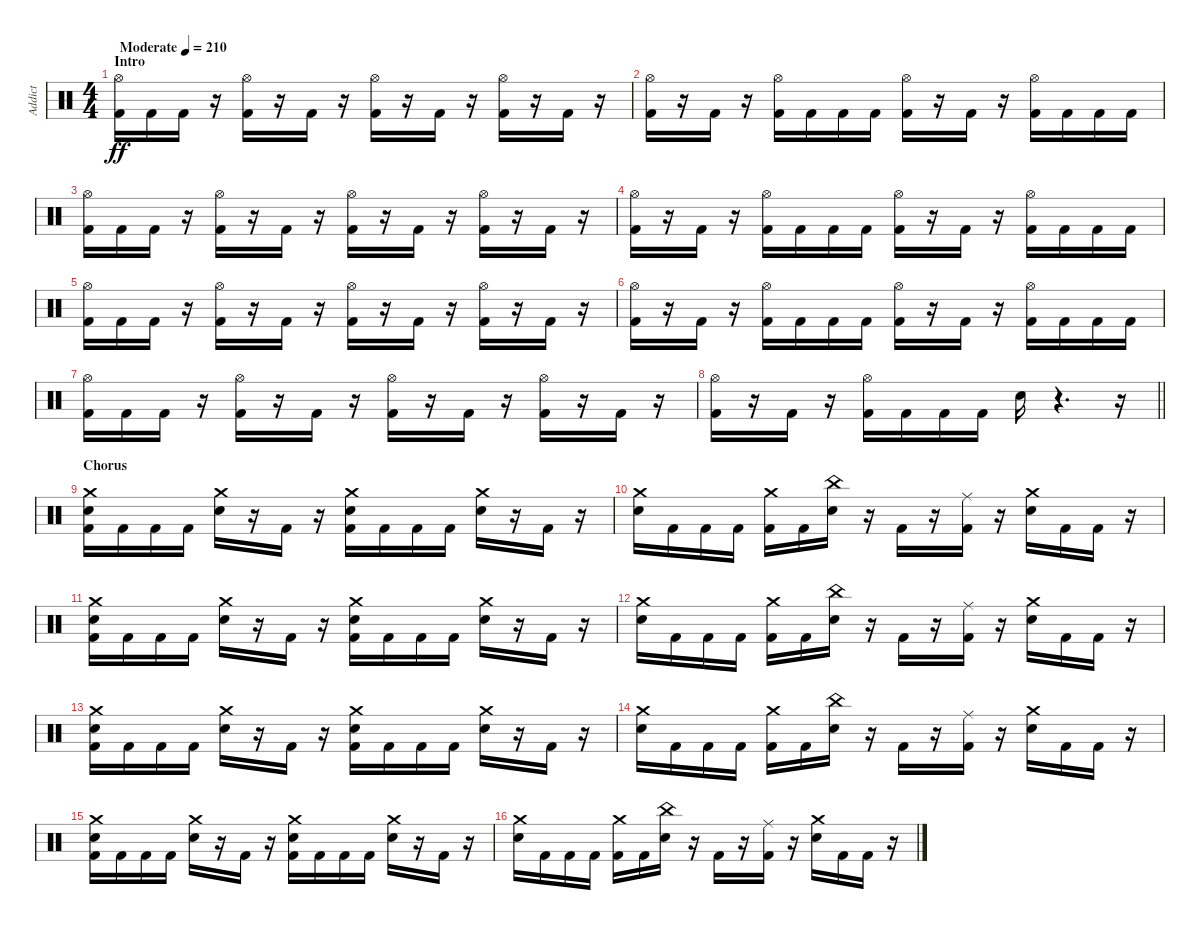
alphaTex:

\track ("Addict" "Addict") {instrument percussion}
\staff {score}
\articulation defaults
\ts (4 4)
\section ("" "Intro")
\tempo (210 "Moderate")
\clef neutral
\ks c
("Kick (hit) 2" "Hi-Hat (open)").16{dy ff} "Kick (hit) 2".16 "Kick (hit) 2".16 r.16 ("Kick (hit) 2" "Hi-Hat (open)").16 r.16 "Kick (hit) 2".16 r.16 ("Kick (hit) 2" "Hi-Hat (open)").16 r.16 "Kick (hit) 2".16 r.16 ("Kick (hit) 2" "Hi-Hat (open)").16 r.16 "Kick (hit) 2".16 r.16 |
("Kick (hit) 2" "Hi-Hat (open)").16 r.16 "Kick (hit) 2".16 r.16 ("Kick (hit) 2" "Hi-Hat (open)").16 "Kick (hit) 2".16 "Kick (hit) 2".16 "Kick (hit) 2".16 ("Kick (hit) 2" "Hi-Hat (open)").16 r.16 "Kick (hit) 2".16 r.16 ("Kick (hit) 2" "Hi-Hat (open)").16 "Kick (hit) 2".16 "Kick (hit) 2".16 "Kick (hit) 2".16 |
("Kick (hit) 2" "Hi-Hat (open)").16 "Kick (hit) 2".16 "Kick (hit) 2".16 r.16 ("Kick (hit) 2" "Hi-Hat (open)").16 r.16 "Kick (hit) 2".16 r.16 ("Kick (hit) 2" "Hi-Hat (open)").16 r.16 "Kick (hit) 2".16 r.16 ("Kick (hit) 2" "Hi-Hat (open)").16 r.16 "Kick (hit) 2".16 r.16 |
("Kick (hit) 2" "Hi-Hat (open)").16 r.16 "Kick (hit) 2".16 r.16 ("Kick (hit) 2" "Hi-Hat (open)").16 "Kick (hit) 2".16 "Kick (hit) 2".16 "Kick (hit) 2".16 ("Kick (hit) 2" "Hi-Hat (open)").16 r.16 "Kick (hit) 2".16 r.16 ("Kick (hit) 2" "Hi-Hat (open)").16 "Kick (hit) 2".16 "Kick (hit) 2".16 "Kick (hit) 2".16 |
("Kick (hit) 2" "Hi-Hat (open)").16 "Kick (hit) 2".16 "Kick (hit) 2".16 r.16 ("Kick (hit) 2" "Hi-Hat (open)").16 r.16 "Kick (hit) 2".16 r.16 ("Kick (hit) 2" "Hi-Hat (open)").16 r.16 "Kick (hit) 2".16 r.16 ("Kick (hit) 2" "Hi-Hat (open)").16 r.16 "Kick (hit) 2".16 r.16 |
("Kick (hit) 2" "Hi-Hat (open)").16 r.16 "Kick (hit) 2".16 r.16 ("Kick (hit) 2" "Hi-Hat (open)").16 "Kick (hit) 2".16 "Kick (hit) 2".16 "Kick (hit) 2".16 ("Kick (hit) 2" "Hi-Hat (open)").16 r.16 "Kick (hit) 2".16 r.16 ("Kick (hit) 2" "Hi-Hat (open)").16 "Kick (hit) 2".16 "Kick (hit) 2".16 "Kick (hit) 2".16 |
("Kick (hit) 2" "Hi-Hat (open)").16 "Kick (hit) 2".16 "Kick (hit) 2".16 r.16 ("Kick (hit) 2" "Hi-Hat (open)").16 r.16 "Kick (hit) 2".16 r.16 ("Kick (hit) 2" "Hi-Hat (open)").16 r.16 "Kick (hit) 2".16 r.16 ("Kick (hit) 2" "Hi-Hat (open)").16 r.16 "Kick (hit) 2".16 r.16 |
\barLineRight lightlight
("Kick (hit) 2" "Hi-Hat (open)").16 r.16 "Kick (hit) 2".16 r.16 ("Kick (hit) 2" "Hi-Hat (open)").16 "Kick (hit) 2".16 "Kick (hit) 2".16 "Kick (hit) 2".16 "Snare (hit) 2".16 r.4{d} r.16 |
\section ("" "Chorus")
("Kick (hit) 2" "Snare (hit) 2" "Crash medium (hit)").16 "Kick (hit) 2".16 "Kick (hit) 2".16 "Kick (hit) 2".16 ("Snare (hit) 2" "Crash medium (hit)").16 r.16 "Kick (hit) 2".16 r.16 ("Kick (hit) 2" "Snare (hit) 2" "Crash medium (hit)").16 "Kick (hit) 2".16 "Kick (hit) 2".16 "Kick (hit) 2".16 ("Snare (hit) 2" "Crash medium (hit)").16 r.16 "Kick (hit) 2".16 r.16 |
("Snare (hit) 2" "Crash medium (hit)").16 "Kick (hit) 2".16 "Kick (hit) 2".16 "Kick (hit) 2".16 ("Kick (hit) 2" "Crash medium (hit)").16 "Kick (hit) 2".16 ("Snare (hit) 2" "China (hit)").16 r.16 "Kick (hit) 2".16 r.16 ("Kick (hit) 2" "Ride (middle)").16 r.16 ("Snare (hit) 2" "Crash medium (hit)").16 "Kick (hit) 2".16 "Kick (hit) 2".16 r.16 |
("Kick (hit) 2" "Snare (hit) 2" "Crash medium (hit)").16 "Kick (hit) 2".16 "Kick (hit) 2".16 "Kick (hit) 2".16 ("Snare (hit) 2" "Crash medium (hit)").16 r.16 "Kick (hit) 2".16 r.16 ("Kick (hit) 2" "Snare (hit) 2" "Crash medium (hit)").16 "Kick (hit) 2".16 "Kick (hit) 2".16 "Kick (hit) 2".16 ("Snare (hit) 2" "Crash medium (hit)").16 r.16 "Kick (hit) 2".16 r.16 |
("Snare (hit) 2" "Crash medium (hit)").16 "Kick (hit) 2".16 "Kick (hit) 2".16 "Kick (hit) 2".16 ("Kick (hit) 2" "Crash medium (hit)").16 "Kick (hit) 2".16 ("Snare (hit) 2" "China (hit)").16 r.16 "Kick (hit) 2".16 r.16 ("Kick (hit) 2" "Ride (middle)").16 r.16 ("Snare (hit) 2" "Crash medium (hit)").16 "Kick (hit) 2".16 "Kick (hit) 2".16 r.16 |
("Kick (hit) 2" "Snare (hit) 2" "Crash medium (hit)").16 "Kick (hit) 2".16 "Kick (hit) 2".16 "Kick (hit) 2".16 ("Snare (hit) 2" "Crash medium (hit)").16 r.16 "Kick (hit) 2".16 r.16 ("Kick (hit) 2" "Snare (hit) 2" "Crash medium (hit)").16 "Kick (hit) 2".16 "Kick (hit) 2".16 "Kick (hit) 2".16 ("Snare (hit) 2" "Crash medium (hit)").16 r.16 "Kick (hit) 2".16 r.16 |
("Snare (hit) 2" "Crash medium (hit)").16 "Kick (hit) 2".16 "Kick (hit) 2".16 "Kick (hit) 2".16 ("Kick (hit) 2" "Crash medium (hit)").16 "Kick (hit) 2".16 ("Snare (hit) 2" "China (hit)").16 r.16 "Kick (hit) 2".16 r.16 ("Kick (hit) 2" "Ride (middle)").16 r.16 ("Snare (hit) 2" "Crash medium (hit)").16 "Kick (hit) 2".16 "Kick (hit) 2".16 r.16 |
("Kick (hit) 2" "Snare (hit) 2" "Crash medium (hit)").16 "Kick (hit) 2".16 "Kick (hit) 2".16 "Kick (hit) 2".16 ("Snare (hit) 2" "Crash medium (hit)").16 r.16 "Kick (hit) 2".16 r.16 ("Kick (hit) 2" "Snare (hit) 2" "Crash medium (hit)").16 "Kick (hit) 2".16 "Kick (hit) 2".16 "Kick (hit) 2".16 ("Snare (hit) 2" "Crash medium (hit)").16 r.16 "Kick (hit) 2".16 r.16 |
("Snare (hit) 2" "Crash medium (hit)").16 "Kick (hit) 2".16 "Kick (hit) 2".16 "Kick (hit) 2".16 ("Kick (hit) 2" "Crash medium (hit)").16 "Kick (hit) 2".16 ("Snare (hit) 2" "China (hit)").16 r.16 "Kick (hit) 2".16 r.16 ("Kick (hit) 2" "Ride (middle)").16 r.16 ("Snare (hit) 2" "Crash medium (hit)").16 "Kick (hit) 2".16 "Kick (hit) 2".16 r.16
